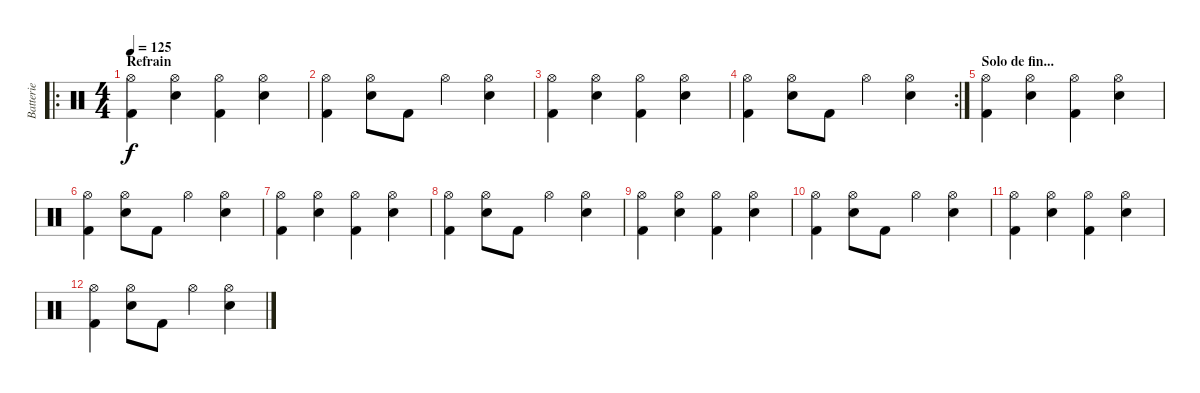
\track ("Batterie" "Batterie") {instrument percussion}
\staff {score}
\articulation defaults
\ro
\ts (4 4)
\section ("" "Refrain")
\tempo 125
\clef neutral
\ks c
("Hi-Hat (open)" "Kick (hit) 2").4{dy f} ("Hi-Hat (open)" "Snare (hit) 2").4 ("Hi-Hat (open)" "Kick (hit) 2").4 ("Hi-Hat (open)" "Snare (hit) 2").4 |
("Hi-Hat (open)" "Kick (hit) 2").4 ("Hi-Hat (open)" "Snare (hit) 2").8 "Kick (hit) 2".8 "Hi-Hat (open)".4 ("Hi-Hat (open)" "Snare (hit) 2").4 |
("Hi-Hat (open)" "Kick (hit) 2").4 ("Hi-Hat (open)" "Snare (hit) 2").4 ("Hi-Hat (open)" "Kick (hit) 2").4 ("Hi-Hat (open)" "Snare (hit) 2").4 |
\rc 2
("Hi-Hat (open)" "Kick (hit) 2").4 ("Hi-Hat (open)" "Snare (hit) 2").8 "Kick (hit) 2".8 "Hi-Hat (open)".4 ("Hi-Hat (open)" "Snare (hit) 2").4 |
\section ("" "Solo de fin...")
("Hi-Hat (open)" "Kick (hit) 2").4 ("Hi-Hat (open)" "Snare (hit) 2").4 ("Hi-Hat (open)" "Kick (hit) 2").4 ("Hi-Hat (open)" "Snare (hit) 2").4 |
("Hi-Hat (open)" "Kick (hit) 2").4 ("Hi-Hat (open)" "Snare (hit) 2").8 "Kick (hit) 2".8 "Hi-Hat (open)".4 ("Hi-Hat (open)" "Snare (hit) 2").4 |
("Hi-Hat (open)" "Kick (hit) 2").4 ("Hi-Hat (open)" "Snare (hit) 2").4 ("Hi-Hat (open)" "Kick (hit) 2").4 ("Hi-Hat (open)" "Snare (hit) 2").4 |
("Hi-Hat (open)" "Kick (hit) 2").4 ("Hi-Hat (open)" "Snare (hit) 2").8 "Kick (hit) 2".8 "Hi-Hat (open)".4 ("Hi-Hat (open)" "Snare (hit) 2").4 |
("Hi-Hat (open)" "Kick (hit) 2").4 ("Hi-Hat (open)" "Snare (hit) 2").4 ("Hi-Hat (open)" "Kick (hit) 2").4 ("Hi-Hat (open)" "Snare (hit) 2").4 |
("Hi-Hat (open)" "Kick (hit) 2").4 ("Hi-Hat (open)" "Snare (hit) 2").8 "Kick (hit) 2".8 "Hi-Hat (open)".4 ("Hi-Hat (open)" "Snare (hit) 2").4 |
("Hi-Hat (open)" "Kick (hit) 2").4 ("Hi-Hat (open)" "Snare (hit) 2").4 ("Hi-Hat (open)" "Kick (hit) 2").4 ("Hi-Hat (open)" "Snare (hit) 2").4 |
("Hi-Hat (open)" "Kick (hit) 2").4 ("Hi-Hat (open)" "Snare (hit) 2").8 "Kick (hit) 2".8 "Hi-Hat (open)".4 ("Hi-Hat (open)" "Snare (hit) 2").4
